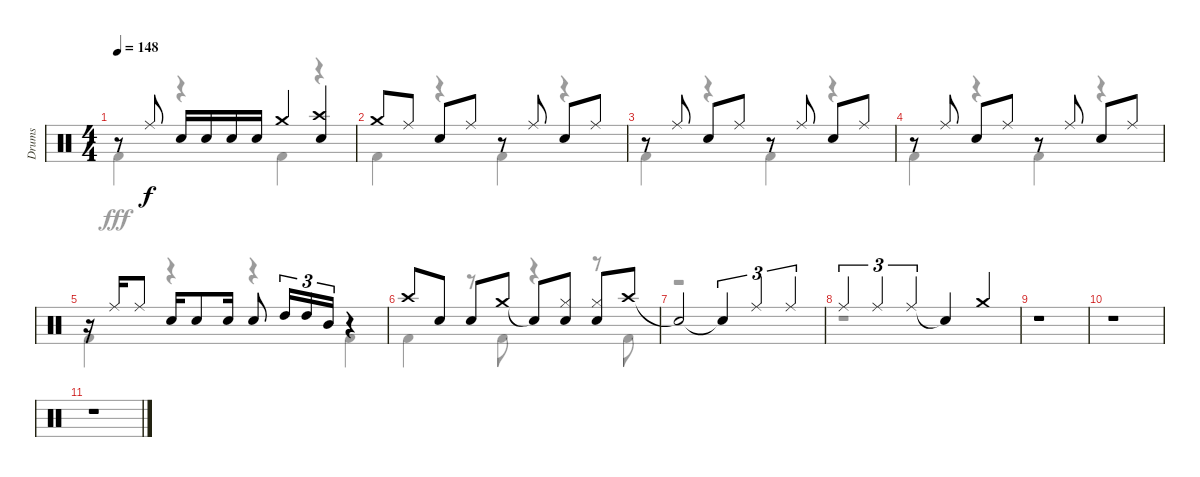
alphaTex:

\track ("Drums" "Drums") {instrument percussion}
\staff {score}
\articulation defaults
\voice
\ts (4 4)
\tempo 148
\clef neutral
\ks c
r.8{dy f} "Ride (middle)".8 "Snare (hit) 2".16 "Snare (hit) 2".16 "Snare (hit) 2".16 "Snare (hit) 2".16 "Crash medium (hit)".4 ("Crash high (hit)" "Snare (hit) 2").4 |
"Crash medium (hit)".8 "Ride (middle)".8 "Snare (hit) 2".8 "Ride (middle)".8 r.8 "Ride (middle)".8 "Snare (hit) 2".8 "Ride (middle)".8 |
r.8 "Ride (middle)".8 "Snare (hit) 2".8 "Ride (middle)".8 r.8 "Ride (middle)".8 "Snare (hit) 2".8 "Ride (middle)".8 |
r.8 "Ride (middle)".8 "Snare (hit) 2".8 "Ride (middle)".8 r.8 "Ride (middle)".8 "Snare (hit) 2".8 "Ride (middle)".8 |
r.16 "Ride (middle)".16 "Ride (middle)".8 "Snare (hit) 2".16 "Snare (hit) 2".8 "Snare (hit) 2".16 "Snare (hit) 2".8 "High Tom (hit)".16{tu (3 2)} "High Tom (hit)".16{tu (3 2)} "Mid Tom (hit)".16{tu (3 2)} r.4 |
"Crash high (hit)".8 "Snare (hit) 2".8 "Snare (hit) 2".8 "Crash medium (hit)".8 "Snare (hit)"{t}.8 ("Hi-Hat (closed)" "Snare (hit) 2").8 ("Hi-Hat (closed)" "Snare (hit) 2").8 "Crash high (hit)".8 |
"Snare (hit)"{t}.2 "Snare (hit)"{t}.4{tu (3 2)} "Ride (middle)".4{tu (3 2)} "Ride (middle)".4{tu (3 2)} |
"Ride (middle)".4{tu (3 2)} "Ride (middle)".4{tu (3 2)} "Ride (middle)".4{tu (3 2)} "Snare (hit)"{t}.4 "Crash medium (hit)".4 |
r.1 |
r.1 |
r.1
\voice
\clef neutral
\ottava regular
\simile none
\ks c "Kick (hit) 2".4{dy fff}
r.4 "Kick (hit) 2".4 r.4 |
"Kick (hit) 2".4 r.4 "Kick (hit) 2".4 r.4 |
"Kick (hit) 2".4 r.4 "Kick (hit) 2".4 r.4 |
"Kick (hit) 2".4 r.4 "Kick (hit) 2".4 r.4 |
"Kick (hit) 2".4 r.4 r.4 "Kick (hit) 2".4 |
"Kick (hit) 2".4 r.8 "Kick (hit) 2".8 r.4 r.8 "Kick (hit) 2".8 |
r.1 |
r.1 |
r.1 |
r.1 |
r.1
